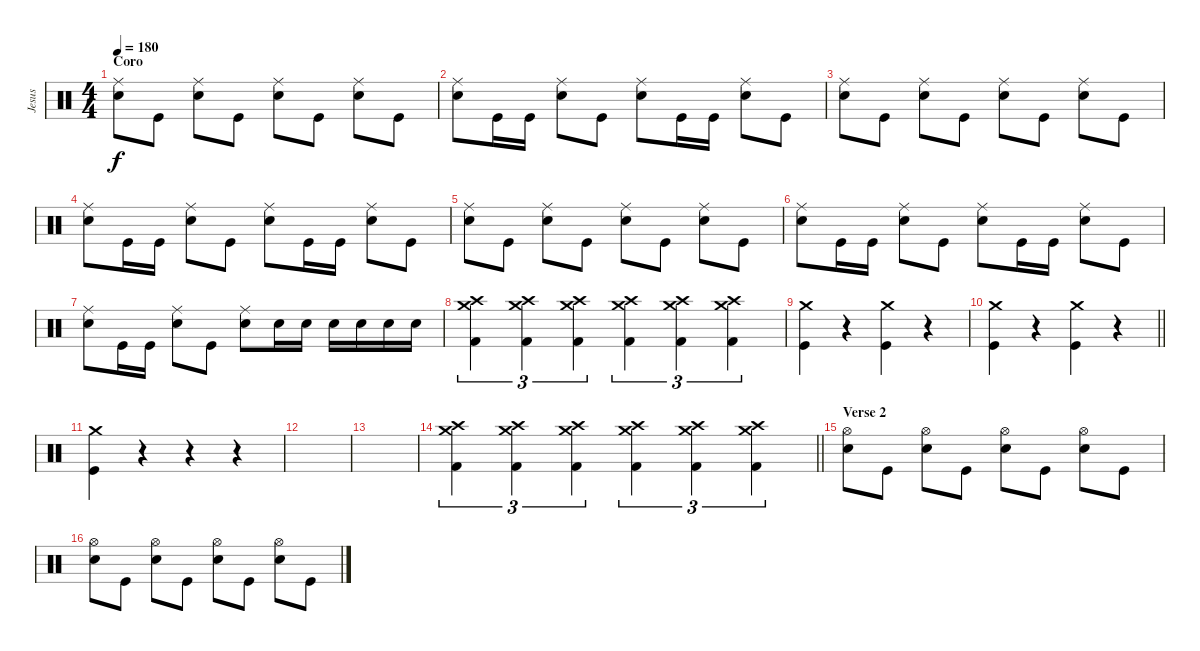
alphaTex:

\track ("Jesus" "Jesus") {instrument percussion}
\staff {score}
\articulation defaults
\ts (4 4)
\section ("" "Coro")
\tempo 180
\clef neutral
\ks c
("Ride (middle)" "Snare (hit) 2").8{dy f} "Kick (hit)".8 ("Ride (middle)" "Snare (hit) 2").8 "Kick (hit)".8 ("Ride (middle)" "Snare (hit) 2").8 "Kick (hit)".8 ("Ride (middle)" "Snare (hit) 2").8 "Kick (hit)".8 |
("Ride (middle)" "Snare (hit) 2").8 "Kick (hit)".16 "Kick (hit)".16 ("Ride (middle)" "Snare (hit) 2").8 "Kick (hit)".8 ("Ride (middle)" "Snare (hit) 2").8 "Kick (hit)".16 "Kick (hit)".16 ("Ride (middle)" "Snare (hit) 2").8 "Kick (hit)".8 |
("Ride (middle)" "Snare (hit) 2").8 "Kick (hit)".8 ("Ride (middle)" "Snare (hit) 2").8 "Kick (hit)".8 ("Ride (middle)" "Snare (hit) 2").8 "Kick (hit)".8 ("Ride (middle)" "Snare (hit) 2").8 "Kick (hit)".8 |
("Ride (middle)" "Snare (hit) 2").8 "Kick (hit)".16 "Kick (hit)".16 ("Ride (middle)" "Snare (hit) 2").8 "Kick (hit)".8 ("Ride (middle)" "Snare (hit) 2").8 "Kick (hit)".16 "Kick (hit)".16 ("Ride (middle)" "Snare (hit) 2").8 "Kick (hit)".8 |
("Ride (middle)" "Snare (hit) 2").8 "Kick (hit)".8 ("Ride (middle)" "Snare (hit) 2").8 "Kick (hit)".8 ("Ride (middle)" "Snare (hit) 2").8 "Kick (hit)".8 ("Ride (middle)" "Snare (hit) 2").8 "Kick (hit)".8 |
("Ride (middle)" "Snare (hit) 2").8 "Kick (hit)".16 "Kick (hit)".16 ("Ride (middle)" "Snare (hit) 2").8 "Kick (hit)".8 ("Ride (middle)" "Snare (hit) 2").8 "Kick (hit)".16 "Kick (hit)".16 ("Ride (middle)" "Snare (hit) 2").8 "Kick (hit)".8 |
("Ride (middle)" "Snare (hit) 2").8 "Kick (hit)".16 "Kick (hit)".16 ("Ride (middle)" "Snare (hit) 2").8 "Kick (hit)".8 ("Ride (middle)" "Snare (hit) 2").8 "Snare (hit) 2".16 "Snare (hit) 2".16 "Snare (hit) 2".16 "Snare (hit) 2".16 "Snare (hit) 2".16 "Snare (hit) 2".16 |
("Crash high (hit)" "Crash medium (hit)" "Kick (hit) 2").4{tu (3 2)} ("Crash high (hit)" "Crash medium (hit)" "Kick (hit) 2").4{tu (3 2)} ("Crash high (hit)" "Crash medium (hit)" "Kick (hit) 2").4{tu (3 2)} ("Crash high (hit)" "Crash medium (hit)" "Kick (hit) 2").4{tu (3 2)} ("Crash high (hit)" "Crash medium (hit)" "Kick (hit) 2").4{tu (3 2)} ("Crash high (hit)" "Crash medium (hit)" "Kick (hit) 2").4{tu (3 2)} |
("Crash medium (hit)" "Kick (hit)").4 r.4 ("Crash medium (hit)" "Kick (hit)").4 r.4 |
\barLineRight lightlight
("Crash medium (hit)" "Kick (hit)").4 r.4 ("Crash medium (hit)" "Kick (hit)").4 r.4 |
("Crash medium (hit)" "Kick (hit)").4 r.4 r.4 r.4 |
|
|
\barLineRight lightlight
("Crash high (hit)" "Crash medium (hit)" "Kick (hit) 2").4{tu (3 2)} ("Crash high (hit)" "Crash medium (hit)" "Kick (hit) 2").4{tu (3 2)} ("Crash high (hit)" "Crash medium (hit)" "Kick (hit) 2").4{tu (3 2)} ("Crash high (hit)" "Crash medium (hit)" "Kick (hit) 2").4{tu (3 2)} ("Crash high (hit)" "Crash medium (hit)" "Kick (hit) 2").4{tu (3 2)} ("Crash high (hit)" "Crash medium (hit)" "Kick (hit) 2").4{tu (3 2)} |
\section ("" "Verse 2")
("Hi-Hat (open)" "Snare (hit) 2").8 "Kick (hit)".8 ("Hi-Hat (open)" "Snare (hit) 2").8 "Kick (hit)".8 ("Hi-Hat (open)" "Snare (hit) 2").8 "Kick (hit)".8 ("Hi-Hat (open)" "Snare (hit) 2").8 "Kick (hit)".8 |
("Hi-Hat (open)" "Snare (hit) 2").8 "Kick (hit)".8 ("Hi-Hat (open)" "Snare (hit) 2").8 "Kick (hit)".8 ("Hi-Hat (open)" "Snare (hit) 2").8 "Kick (hit)".8 ("Hi-Hat (open)" "Snare (hit) 2").8 "Kick (hit)".8
